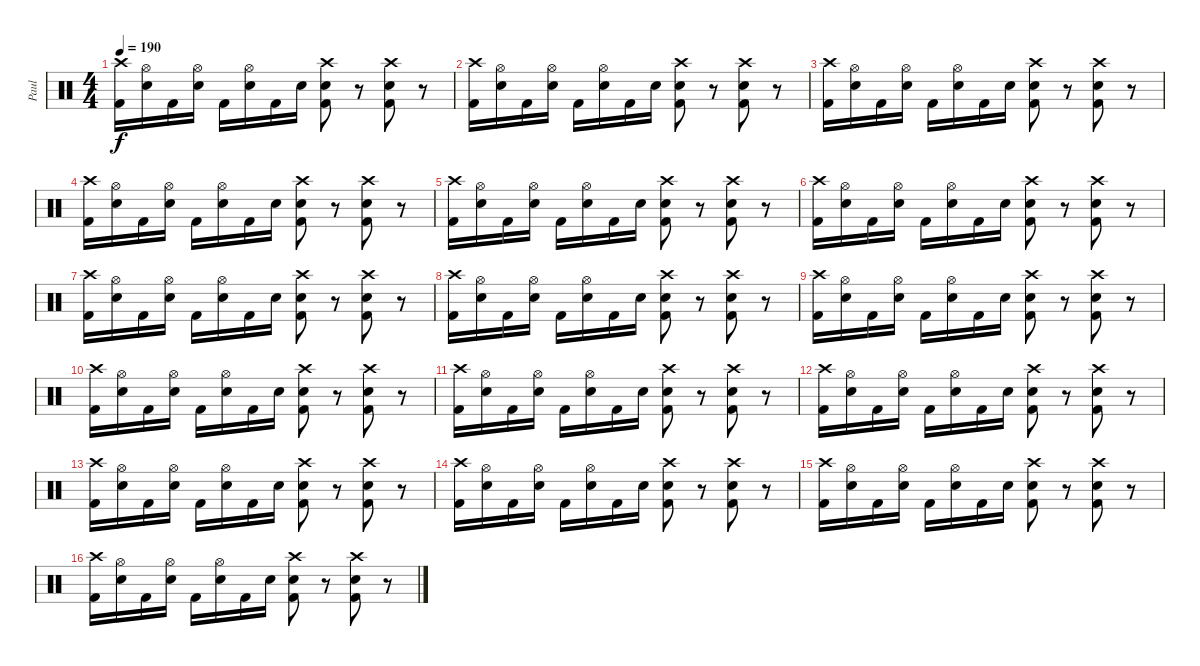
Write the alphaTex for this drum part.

\track ("Paul" "Paul") {instrument percussion}
\staff {score}
\articulation defaults
\ts (4 4)
\tempo 190
\clef neutral
\ks c
("Crash high (hit)" "Kick (hit) 2").16{dy f} ("Hi-Hat (open)" "Snare (hit) 2").16 "Kick (hit) 2".16 ("Hi-Hat (open)" "Snare (hit) 2").16 "Kick (hit) 2".16 ("Hi-Hat (open)" "Snare (hit) 2").16 "Kick (hit) 2".16 "Snare (hit) 2".16 ("Crash high (hit)" "Snare (hit) 2" "Kick (hit) 2").8 r.8 ("Crash high (hit)" "Snare (hit) 2" "Kick (hit) 2").8 r.8 |
("Crash high (hit)" "Kick (hit) 2").16 ("Hi-Hat (open)" "Snare (hit) 2").16 "Kick (hit) 2".16 ("Hi-Hat (open)" "Snare (hit) 2").16 "Kick (hit) 2".16 ("Hi-Hat (open)" "Snare (hit) 2").16 "Kick (hit) 2".16 "Snare (hit) 2".16 ("Crash high (hit)" "Snare (hit) 2" "Kick (hit) 2").8 r.8 ("Crash high (hit)" "Snare (hit) 2" "Kick (hit) 2").8 r.8 |
("Crash high (hit)" "Kick (hit) 2").16 ("Hi-Hat (open)" "Snare (hit) 2").16 "Kick (hit) 2".16 ("Hi-Hat (open)" "Snare (hit) 2").16 "Kick (hit) 2".16 ("Hi-Hat (open)" "Snare (hit) 2").16 "Kick (hit) 2".16 "Snare (hit) 2".16 ("Crash high (hit)" "Snare (hit) 2" "Kick (hit) 2").8 r.8 ("Crash high (hit)" "Snare (hit) 2" "Kick (hit) 2").8 r.8 |
("Crash high (hit)" "Kick (hit) 2").16 ("Hi-Hat (open)" "Snare (hit) 2").16 "Kick (hit) 2".16 ("Hi-Hat (open)" "Snare (hit) 2").16 "Kick (hit) 2".16 ("Hi-Hat (open)" "Snare (hit) 2").16 "Kick (hit) 2".16 "Snare (hit) 2".16 ("Crash high (hit)" "Snare (hit) 2" "Kick (hit) 2").8 r.8 ("Crash high (hit)" "Snare (hit) 2" "Kick (hit) 2").8 r.8 |
("Crash high (hit)" "Kick (hit) 2").16 ("Hi-Hat (open)" "Snare (hit) 2").16 "Kick (hit) 2".16 ("Hi-Hat (open)" "Snare (hit) 2").16 "Kick (hit) 2".16 ("Hi-Hat (open)" "Snare (hit) 2").16 "Kick (hit) 2".16 "Snare (hit) 2".16 ("Crash high (hit)" "Snare (hit) 2" "Kick (hit) 2").8 r.8 ("Crash high (hit)" "Snare (hit) 2" "Kick (hit) 2").8 r.8 |
("Crash high (hit)" "Kick (hit) 2").16 ("Hi-Hat (open)" "Snare (hit) 2").16 "Kick (hit) 2".16 ("Hi-Hat (open)" "Snare (hit) 2").16 "Kick (hit) 2".16 ("Hi-Hat (open)" "Snare (hit) 2").16 "Kick (hit) 2".16 "Snare (hit) 2".16 ("Crash high (hit)" "Snare (hit) 2" "Kick (hit) 2").8 r.8 ("Crash high (hit)" "Snare (hit) 2" "Kick (hit) 2").8 r.8 |
("Crash high (hit)" "Kick (hit) 2").16 ("Hi-Hat (open)" "Snare (hit) 2").16 "Kick (hit) 2".16 ("Hi-Hat (open)" "Snare (hit) 2").16 "Kick (hit) 2".16 ("Hi-Hat (open)" "Snare (hit) 2").16 "Kick (hit) 2".16 "Snare (hit) 2".16 ("Crash high (hit)" "Snare (hit) 2" "Kick (hit) 2").8 r.8 ("Crash high (hit)" "Snare (hit) 2" "Kick (hit) 2").8 r.8 |
("Crash high (hit)" "Kick (hit) 2").16 ("Hi-Hat (open)" "Snare (hit) 2").16 "Kick (hit) 2".16 ("Hi-Hat (open)" "Snare (hit) 2").16 "Kick (hit) 2".16 ("Hi-Hat (open)" "Snare (hit) 2").16 "Kick (hit) 2".16 "Snare (hit) 2".16 ("Crash high (hit)" "Snare (hit) 2" "Kick (hit) 2").8 r.8 ("Crash high (hit)" "Snare (hit) 2" "Kick (hit) 2").8 r.8 |
("Crash high (hit)" "Kick (hit) 2").16 ("Hi-Hat (open)" "Snare (hit) 2").16 "Kick (hit) 2".16 ("Hi-Hat (open)" "Snare (hit) 2").16 "Kick (hit) 2".16 ("Hi-Hat (open)" "Snare (hit) 2").16 "Kick (hit) 2".16 "Snare (hit) 2".16 ("Crash high (hit)" "Snare (hit) 2" "Kick (hit) 2").8 r.8 ("Crash high (hit)" "Snare (hit) 2" "Kick (hit) 2").8 r.8 |
("Crash high (hit)" "Kick (hit) 2").16 ("Hi-Hat (open)" "Snare (hit) 2").16 "Kick (hit) 2".16 ("Hi-Hat (open)" "Snare (hit) 2").16 "Kick (hit) 2".16 ("Hi-Hat (open)" "Snare (hit) 2").16 "Kick (hit) 2".16 "Snare (hit) 2".16 ("Crash high (hit)" "Snare (hit) 2" "Kick (hit) 2").8 r.8 ("Crash high (hit)" "Snare (hit) 2" "Kick (hit) 2").8 r.8 |
("Crash high (hit)" "Kick (hit) 2").16 ("Hi-Hat (open)" "Snare (hit) 2").16 "Kick (hit) 2".16 ("Hi-Hat (open)" "Snare (hit) 2").16 "Kick (hit) 2".16 ("Hi-Hat (open)" "Snare (hit) 2").16 "Kick (hit) 2".16 "Snare (hit) 2".16 ("Crash high (hit)" "Snare (hit) 2" "Kick (hit) 2").8 r.8 ("Crash high (hit)" "Snare (hit) 2" "Kick (hit) 2").8 r.8 |
("Crash high (hit)" "Kick (hit) 2").16 ("Hi-Hat (open)" "Snare (hit) 2").16 "Kick (hit) 2".16 ("Hi-Hat (open)" "Snare (hit) 2").16 "Kick (hit) 2".16 ("Hi-Hat (open)" "Snare (hit) 2").16 "Kick (hit) 2".16 "Snare (hit) 2".16 ("Crash high (hit)" "Snare (hit) 2" "Kick (hit) 2").8 r.8 ("Crash high (hit)" "Snare (hit) 2" "Kick (hit) 2").8 r.8 |
("Crash high (hit)" "Kick (hit) 2").16 ("Hi-Hat (open)" "Snare (hit) 2").16 "Kick (hit) 2".16 ("Hi-Hat (open)" "Snare (hit) 2").16 "Kick (hit) 2".16 ("Hi-Hat (open)" "Snare (hit) 2").16 "Kick (hit) 2".16 "Snare (hit) 2".16 ("Crash high (hit)" "Snare (hit) 2" "Kick (hit) 2").8 r.8 ("Crash high (hit)" "Snare (hit) 2" "Kick (hit) 2").8 r.8 |
("Crash high (hit)" "Kick (hit) 2").16 ("Hi-Hat (open)" "Snare (hit) 2").16 "Kick (hit) 2".16 ("Hi-Hat (open)" "Snare (hit) 2").16 "Kick (hit) 2".16 ("Hi-Hat (open)" "Snare (hit) 2").16 "Kick (hit) 2".16 "Snare (hit) 2".16 ("Crash high (hit)" "Snare (hit) 2" "Kick (hit) 2").8 r.8 ("Crash high (hit)" "Snare (hit) 2" "Kick (hit) 2").8 r.8 |
("Crash high (hit)" "Kick (hit) 2").16 ("Hi-Hat (open)" "Snare (hit) 2").16 "Kick (hit) 2".16 ("Hi-Hat (open)" "Snare (hit) 2").16 "Kick (hit) 2".16 ("Hi-Hat (open)" "Snare (hit) 2").16 "Kick (hit) 2".16 "Snare (hit) 2".16 ("Crash high (hit)" "Snare (hit) 2" "Kick (hit) 2").8 r.8 ("Crash high (hit)" "Snare (hit) 2" "Kick (hit) 2").8 r.8 |
("Crash high (hit)" "Kick (hit) 2").16 ("Hi-Hat (open)" "Snare (hit) 2").16 "Kick (hit) 2".16 ("Hi-Hat (open)" "Snare (hit) 2").16 "Kick (hit) 2".16 ("Hi-Hat (open)" "Snare (hit) 2").16 "Kick (hit) 2".16 "Snare (hit) 2".16 ("Crash high (hit)" "Snare (hit) 2" "Kick (hit) 2").8 r.8 ("Crash high (hit)" "Snare (hit) 2" "Kick (hit) 2").8 r.8
